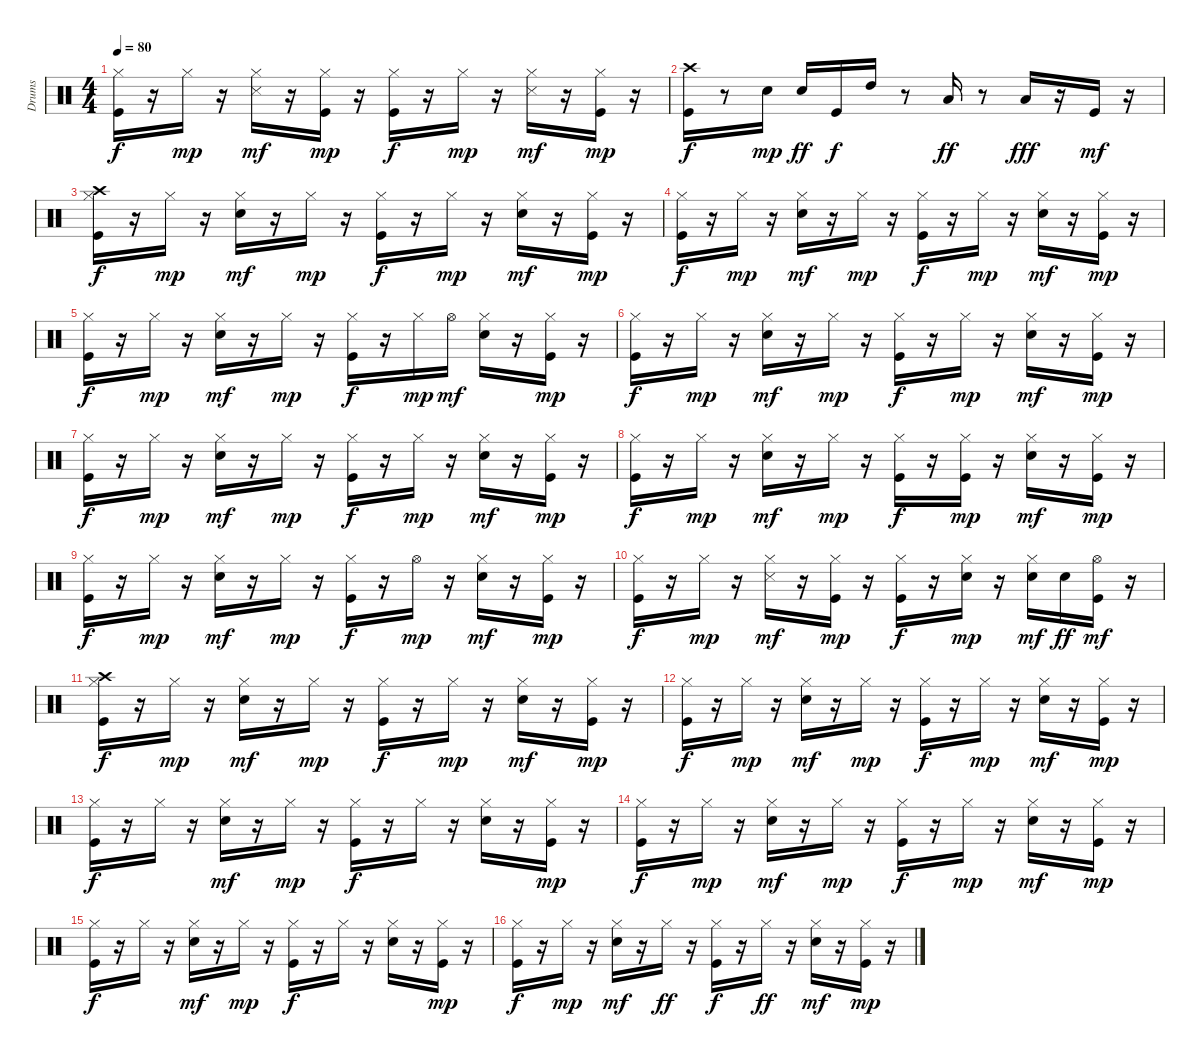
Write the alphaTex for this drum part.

\track ("Drums  " "Drums  ") {instrument percussion}
\staff {score}
\articulation defaults
\ts (4 4)
\tempo 80
\clef neutral
\ks c
("Kick (hit)" "Hi-Hat (closed)").16{dy f} r.16 "Hi-Hat (closed)".16{dy mp} r.16 ("Hi-Hat (closed)" "Snare (side stick) 3").16{dy mf} r.16 ("Kick (hit)" "Hi-Hat (closed)").16{dy mp} r.16 ("Kick (hit)" "Hi-Hat (closed)").16{dy f} r.16 "Hi-Hat (closed)".16{dy mp} r.16 ("Hi-Hat (closed)" "Snare (side stick) 3").16{dy mf} r.16 ("Kick (hit)" "Hi-Hat (closed)").16{dy mp} r.16 |
("Kick (hit)" "Crash high (hit)").16{dy f} r.8 "Snare (hit) 2".16{dy mp} "Snare (hit) 2".16{dy ff} "Kick (hit)".16{dy f} "High Tom (hit)".16 r.8 "Low Tom (hit)".16{dy ff} r.8 "Low Floor Tom (hit)".16{dy fff} r.16 "Kick (hit)".16{dy mf} r.16 |
("Kick (hit)" "Hi-Hat (closed)" "Crash high (hit)").16{dy f} r.16 "Hi-Hat (closed)".16{dy mp} r.16 ("Snare (hit) 2" "Hi-Hat (closed)").16{dy mf} r.16 "Hi-Hat (closed)".16{dy mp} r.16 ("Kick (hit)" "Hi-Hat (closed)").16{dy f} r.16 "Hi-Hat (closed)".16{dy mp} r.16 ("Snare (hit) 2" "Hi-Hat (closed)").16{dy mf} r.16 ("Kick (hit)" "Hi-Hat (closed)").16{dy mp} r.16 |
("Kick (hit)" "Hi-Hat (closed)").16{dy f} r.16 "Hi-Hat (closed)".16{dy mp} r.16 ("Snare (hit) 2" "Hi-Hat (closed)").16{dy mf} r.16 "Hi-Hat (closed)".16{dy mp} r.16 ("Kick (hit)" "Hi-Hat (closed)").16{dy f} r.16 "Hi-Hat (closed)".16{dy mp} r.16 ("Snare (hit) 2" "Hi-Hat (closed)").16{dy mf} r.16 ("Kick (hit)" "Hi-Hat (closed)").16{dy mp} r.16 |
("Kick (hit)" "Hi-Hat (closed)").16{dy f} r.16 "Hi-Hat (closed)".16{dy mp} r.16 ("Snare (hit) 2" "Hi-Hat (closed)").16{dy mf} r.16 "Hi-Hat (closed)".16{dy mp} r.16 ("Kick (hit)" "Hi-Hat (closed)").16{dy f} r.16 "Hi-Hat (closed)".16{dy mp} "Hi-Hat (open)".16{dy mf} ("Snare (hit) 2" "Hi-Hat (closed)").16 r.16 ("Kick (hit)" "Hi-Hat (closed)").16{dy mp} r.16 |
("Kick (hit)" "Hi-Hat (closed)").16{dy f} r.16 "Hi-Hat (closed)".16{dy mp} r.16 ("Snare (hit) 2" "Hi-Hat (closed)").16{dy mf} r.16 "Hi-Hat (closed)".16{dy mp} r.16 ("Kick (hit)" "Hi-Hat (closed)").16{dy f} r.16 "Hi-Hat (closed)".16{dy mp} r.16 ("Snare (hit) 2" "Hi-Hat (closed)").16{dy mf} r.16 ("Kick (hit)" "Hi-Hat (closed)").16{dy mp} r.16 |
("Kick (hit)" "Hi-Hat (closed)").16{dy f} r.16 "Hi-Hat (closed)".16{dy mp} r.16 ("Snare (hit) 2" "Hi-Hat (closed)").16{dy mf} r.16 "Hi-Hat (closed)".16{dy mp} r.16 ("Kick (hit)" "Hi-Hat (closed)").16{dy f} r.16 "Hi-Hat (closed)".16{dy mp} r.16 ("Snare (hit) 2" "Hi-Hat (closed)").16{dy mf} r.16 ("Kick (hit)" "Hi-Hat (closed)").16{dy mp} r.16 |
("Kick (hit)" "Hi-Hat (closed)").16{dy f} r.16 "Hi-Hat (closed)".16{dy mp} r.16 ("Snare (hit) 2" "Hi-Hat (closed)").16{dy mf} r.16 "Hi-Hat (closed)".16{dy mp} r.16 ("Kick (hit)" "Hi-Hat (closed)").16{dy f} r.16 ("Kick (hit)" "Hi-Hat (closed)").16{dy mp} r.16 ("Snare (hit) 2" "Hi-Hat (closed)").16{dy mf} r.16 ("Kick (hit)" "Hi-Hat (closed)").16{dy mp} r.16 |
("Kick (hit)" "Hi-Hat (closed)").16{dy f} r.16 "Hi-Hat (closed)".16{dy mp} r.16 ("Snare (hit) 2" "Hi-Hat (closed)").16{dy mf} r.16 "Hi-Hat (closed)".16{dy mp} r.16 ("Kick (hit)" "Hi-Hat (closed)").16{dy f} r.16 "Hi-Hat (open)".16{dy mp} r.16 ("Snare (hit) 2" "Hi-Hat (closed)").16{dy mf} r.16 ("Kick (hit)" "Hi-Hat (closed)").16{dy mp} r.16 |
("Kick (hit)" "Hi-Hat (closed)").16{dy f} r.16 "Hi-Hat (closed)".16{dy mp} r.16 ("Hi-Hat (closed)" "Snare (side stick) 3").16{dy mf} r.16 ("Kick (hit)" "Hi-Hat (closed)").16{dy mp} r.16 ("Kick (hit)" "Hi-Hat (closed)").16{dy f} r.16 ("Snare (hit) 2" "Hi-Hat (closed)").16{dy mp} r.16 ("Snare (hit) 2" "Hi-Hat (closed)").16{dy mf} "Snare (hit) 2".16{dy ff} ("Kick (hit)" "Hi-Hat (open)").16{dy mf} r.16 |
("Kick (hit)" "Hi-Hat (closed)" "Crash high (hit)").16{dy f} r.16 "Hi-Hat (closed)".16{dy mp} r.16 ("Snare (hit) 2" "Hi-Hat (closed)").16{dy mf} r.16 "Hi-Hat (closed)".16{dy mp} r.16 ("Kick (hit)" "Hi-Hat (closed)").16{dy f} r.16 "Hi-Hat (closed)".16{dy mp} r.16 ("Snare (hit) 2" "Hi-Hat (closed)").16{dy mf} r.16 ("Kick (hit)" "Hi-Hat (closed)").16{dy mp} r.16 |
("Kick (hit)" "Hi-Hat (closed)").16{dy f} r.16 "Hi-Hat (closed)".16{dy mp} r.16 ("Snare (hit) 2" "Hi-Hat (closed)").16{dy mf} r.16 "Hi-Hat (closed)".16{dy mp} r.16 ("Kick (hit)" "Hi-Hat (closed)").16{dy f} r.16 "Hi-Hat (closed)".16{dy mp} r.16 ("Snare (hit) 2" "Hi-Hat (closed)").16{dy mf} r.16 ("Kick (hit)" "Hi-Hat (closed)").16{dy mp} r.16 |
("Kick (hit)" "Hi-Hat (closed)").16{dy f} r.16 "Hi-Hat (closed)".16 r.16 ("Snare (hit) 2" "Hi-Hat (closed)").16{dy mf} r.16 "Hi-Hat (closed)".16{dy mp} r.16 ("Kick (hit)" "Hi-Hat (closed)").16{dy f} r.16 "Hi-Hat (closed)".16 r.16 ("Snare (hit) 2" "Hi-Hat (closed)").16 r.16 ("Kick (hit)" "Hi-Hat (closed)").16{dy mp} r.16 |
("Kick (hit)" "Hi-Hat (closed)").16{dy f} r.16 "Hi-Hat (closed)".16{dy mp} r.16 ("Snare (hit) 2" "Hi-Hat (closed)").16{dy mf} r.16 "Hi-Hat (closed)".16{dy mp} r.16 ("Kick (hit)" "Hi-Hat (closed)").16{dy f} r.16 "Hi-Hat (closed)".16{dy mp} r.16 ("Snare (hit) 2" "Hi-Hat (closed)").16{dy mf} r.16 ("Kick (hit)" "Hi-Hat (closed)").16{dy mp} r.16 |
("Kick (hit)" "Hi-Hat (closed)").16{dy f} r.16 "Hi-Hat (closed)".16 r.16 ("Snare (hit) 2" "Hi-Hat (closed)").16{dy mf} r.16 "Hi-Hat (closed)".16{dy mp} r.16 ("Kick (hit)" "Hi-Hat (closed)").16{dy f} r.16 "Hi-Hat (closed)".16 r.16 ("Snare (hit) 2" "Hi-Hat (closed)").16 r.16 ("Kick (hit)" "Hi-Hat (closed)").16{dy mp} r.16 |
("Kick (hit)" "Hi-Hat (closed)").16{dy f} r.16 "Hi-Hat (closed)".16{dy mp} r.16 ("Snare (hit) 2" "Hi-Hat (closed)").16{dy mf} r.16 "Hi-Hat (closed)".16{dy ff} r.16 ("Kick (hit)" "Hi-Hat (closed)").16{dy f} r.16 "Hi-Hat (closed)".16{dy ff} r.16 ("Snare (hit) 2" "Hi-Hat (closed)").16{dy mf} r.16 ("Kick (hit)" "Hi-Hat (closed)").16{dy mp} r.16
